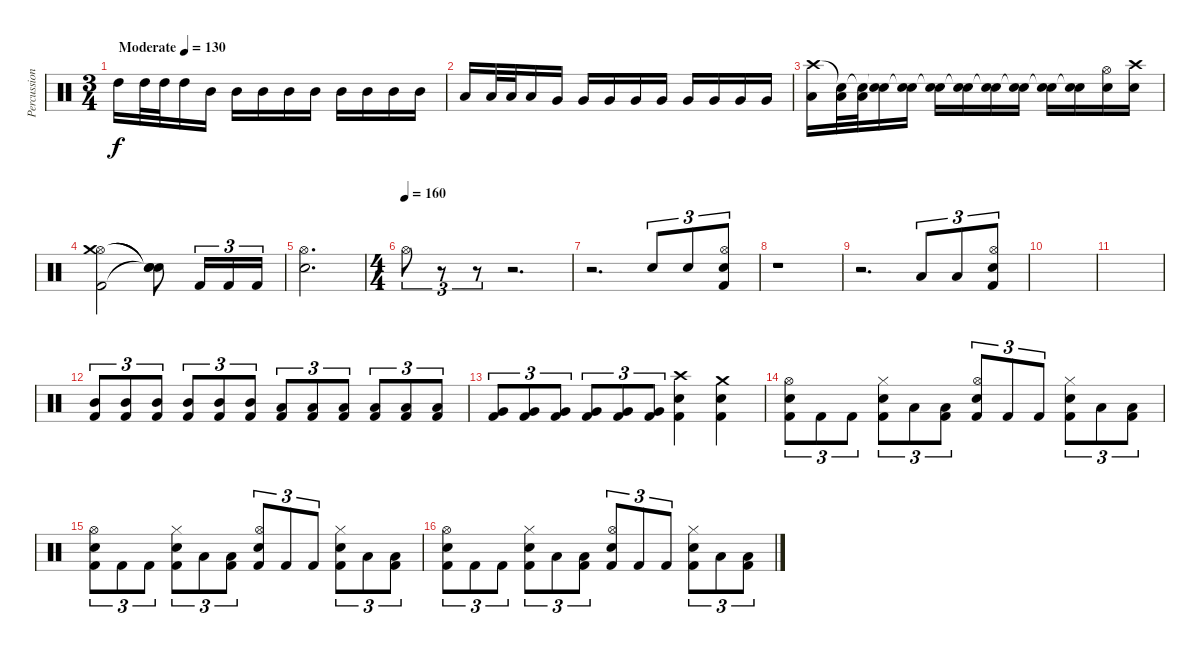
\track ("Percussions" "Percussion") {instrument percussion}
\staff {score}
\articulation defaults
\ts (3 4)
\tempo (130 "Moderate")
\clef neutral
\ks c "High Tom (hit)".16{dy f} "High Tom (hit)".32 "High Tom (hit)".32 "High Tom (hit)".16 "Mid Tom (hit)".16 "Mid Tom (hit)".16 "Mid Tom (hit)".16 "Mid Tom (hit)".16 "Mid Tom (hit)".16 "Mid Tom (hit)".16 "Mid Tom (hit)".16 "Mid Tom (hit)".16 "Mid Tom (hit)".16
|
"Low Tom (hit)".16 "Low Tom (hit)".32 "Low Tom (hit)".32 "Low Tom (hit)".16 "Very Low Tom (hit)".16 "Very Low Tom (hit)".16 "Very Low Tom (hit)".16 "Very Low Tom (hit)".16 "Very Low Tom (hit)".16 "Very Low Tom (hit)".16 "Very Low Tom (hit)".16 "Very Low Tom (hit)".16 "Very Low Tom (hit)".16 |
("Low Floor Tom (hit)" "Crash high (hit)").16 ("Low Floor Tom (hit)" "Snare (hit)"{t}).32 ("Low Floor Tom (hit)" "Snare (hit)"{t}).32 ("Snare (hit) 2" "Snare (hit)"{t}).16 ("Snare (hit) 2" "Snare (hit)"{t}).16 ("Snare (hit) 2" "Snare (hit)"{t}).16 ("Snare (hit) 2" "Snare (hit)"{t}).16 ("Snare (hit) 2" "Snare (hit)"{t}).16 ("Snare (hit) 2" "Snare (hit)"{t}).16 ("Snare (hit) 2" "Snare (hit)"{t}).16 ("Snare (hit) 2" "Snare (hit)"{t}).16 ("Snare (hit) 2" "Hi-Hat (open)").16 ("Snare (hit) 2" "Crash high (hit)").16 |
("Kick (hit) 2" "Hi-Hat (open)" "Crash medium (hit)").2 ("Snare (hit)"{t} "Snare (hit)"{t} "Snare (hit)"{t}).8 "Kick (hit) 2".16{tu (3 2)} "Kick (hit) 2".16{tu (3 2)} "Kick (hit) 2".16{tu (3 2)} |
("Snare (hit) 2" "Hi-Hat (open)").2{d} |
\ts (4 4)
\tempo (160)
"Hi-Hat (open)".8{tu (3 2)} r.8{tu (3 2)} r.8{tu (3 2)} r.2{d} |
r.2{d} "Snare (hit) 2".8{tu (3 2)} "Snare (hit) 2".8{tu (3 2)} ("Kick (hit) 2" "Snare (hit) 2" "Hi-Hat (open)").8{tu (3 2)} |
r.1 |
r.2{d} "Low Tom (hit)".8{tu (3 2)} "Low Tom (hit)".8{tu (3 2)} ("Kick (hit) 2" "Snare (hit) 2" "Hi-Hat (open)").8{tu (3 2)} |
|
|
("Kick (hit) 2" "Mid Tom (hit)").8{tu (3 2)} ("Kick (hit) 2" "Mid Tom (hit)").8{tu (3 2)} ("Kick (hit) 2" "Mid Tom (hit)").8{tu (3 2)} ("Kick (hit) 2" "Mid Tom (hit)").8{tu (3 2)} ("Kick (hit) 2" "Mid Tom (hit)").8{tu (3 2)} ("Kick (hit) 2" "Mid Tom (hit)").8{tu (3 2)} ("Kick (hit) 2" "Low Tom (hit)").8{tu (3 2)} ("Kick (hit) 2" "Low Tom (hit)").8{tu (3 2)} ("Kick (hit) 2" "Low Tom (hit)").8{tu (3 2)} ("Kick (hit) 2" "Low Tom (hit)").8{tu (3 2)} ("Kick (hit) 2" "Low Tom (hit)").8{tu (3 2)} ("Kick (hit) 2" "Low Tom (hit)").8{tu (3 2)} |
("Kick (hit) 2" "Very Low Tom (hit)").8{tu (3 2)} ("Kick (hit) 2" "Very Low Tom (hit)").8{tu (3 2)} ("Kick (hit) 2" "Very Low Tom (hit)").8{tu (3 2)} ("Kick (hit) 2" "Very Low Tom (hit)").8{tu (3 2)} ("Kick (hit) 2" "Very Low Tom (hit)").8{tu (3 2)} ("Kick (hit) 2" "Very Low Tom (hit)").8{tu (3 2)} ("Kick (hit) 2" "Snare (hit) 2" "Crash high (hit)").4 ("Kick (hit) 2" "Snare (hit) 2" "Crash medium (hit)").4 |
("Kick (hit) 2" "Electric Snare (hit)" "Hi-Hat (open)").8{tu (3 2)} "Kick (hit) 2".8{tu (3 2)} "Kick (hit) 2".8{tu (3 2)} ("Kick (hit) 2" "Electric Snare (hit)" "Hi-Hat (closed)").8{tu (3 2)} "Low Floor Tom (hit)".8{tu (3 2)} ("Kick (hit) 2" "Low Floor Tom (hit)").8{tu (3 2)} ("Kick (hit) 2" "Snare (hit) 2" "Hi-Hat (open)").8{tu (3 2)} "Kick (hit) 2".8{tu (3 2)} "Kick (hit) 2".8{tu (3 2)} ("Kick (hit) 2" "Snare (hit) 2" "Hi-Hat (closed)").8{tu (3 2)} "Low Floor Tom (hit)".8{tu (3 2)} ("Kick (hit) 2" "Low Floor Tom (hit)").8{tu (3 2)} |
("Kick (hit) 2" "Electric Snare (hit)" "Hi-Hat (open)").8{tu (3 2)} "Kick (hit) 2".8{tu (3 2)} "Kick (hit) 2".8{tu (3 2)} ("Kick (hit) 2" "Electric Snare (hit)" "Hi-Hat (closed)").8{tu (3 2)} "Low Floor Tom (hit)".8{tu (3 2)} ("Kick (hit) 2" "Low Floor Tom (hit)").8{tu (3 2)} ("Kick (hit) 2" "Snare (hit) 2" "Hi-Hat (open)").8{tu (3 2)} "Kick (hit) 2".8{tu (3 2)} "Kick (hit) 2".8{tu (3 2)} ("Kick (hit) 2" "Snare (hit) 2" "Hi-Hat (closed)").8{tu (3 2)} "Low Floor Tom (hit)".8{tu (3 2)} ("Kick (hit) 2" "Low Floor Tom (hit)").8{tu (3 2)} |
("Kick (hit) 2" "Electric Snare (hit)" "Hi-Hat (open)").8{tu (3 2)} "Kick (hit) 2".8{tu (3 2)} "Kick (hit) 2".8{tu (3 2)} ("Kick (hit) 2" "Electric Snare (hit)" "Hi-Hat (closed)").8{tu (3 2)} "Low Floor Tom (hit)".8{tu (3 2)} ("Kick (hit) 2" "Low Floor Tom (hit)").8{tu (3 2)} ("Kick (hit) 2" "Snare (hit) 2" "Hi-Hat (open)").8{tu (3 2)} "Kick (hit) 2".8{tu (3 2)} "Kick (hit) 2".8{tu (3 2)} ("Kick (hit) 2" "Snare (hit) 2" "Hi-Hat (closed)").8{tu (3 2)} "Low Floor Tom (hit)".8{tu (3 2)} ("Kick (hit) 2" "Low Floor Tom (hit)").8{tu (3 2)}
